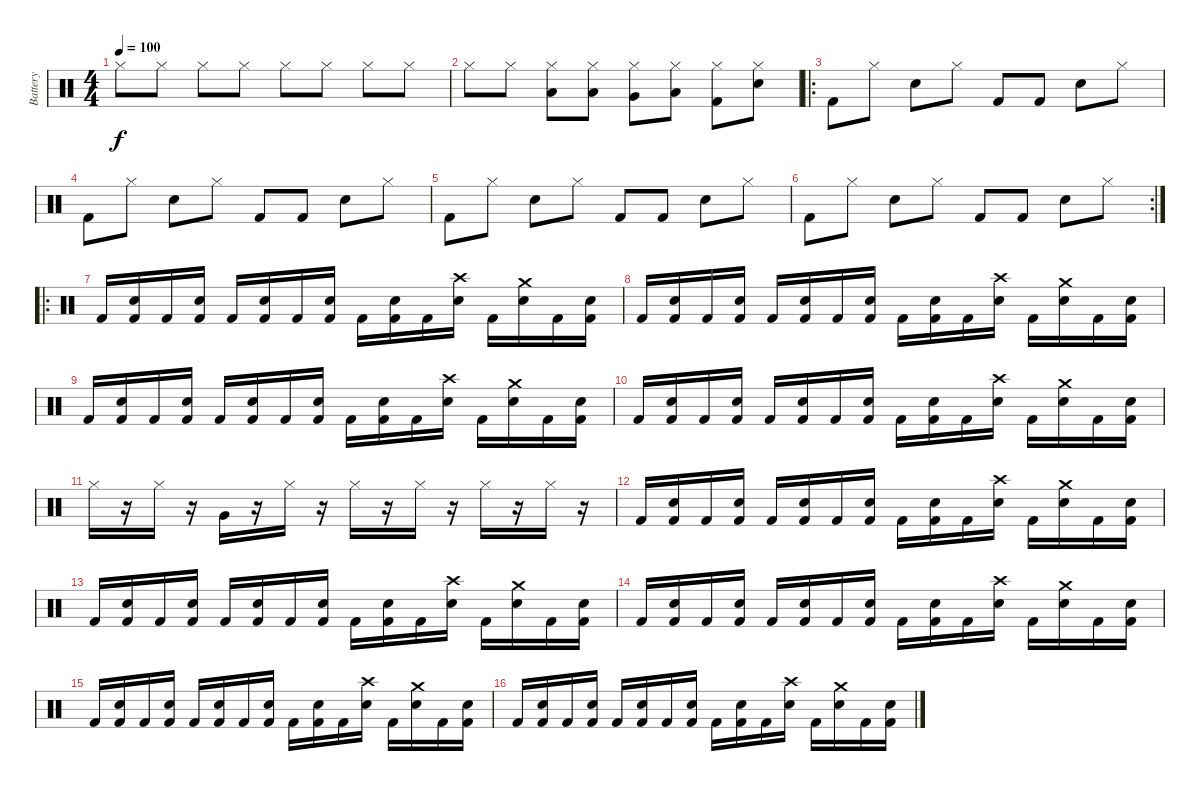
\track ("Battery" "Battery") {instrument percussion}
\staff {score}
\articulation defaults
\ts (4 4)
\tempo 100
\clef neutral
\ks c "Hi-Hat (closed)".8{dy f} "Hi-Hat (closed)".8 "Hi-Hat (closed)".8 "Hi-Hat (closed)".8 "Hi-Hat (closed)".8 "Hi-Hat (closed)".8 "Hi-Hat (closed)".8 "Hi-Hat (closed)".8
|
"Hi-Hat (closed)".8 "Hi-Hat (closed)".8 ("Hi-Hat (closed)" "Low Tom (hit)").8 ("Hi-Hat (closed)" "Low Tom (hit)").8 ("Hi-Hat (closed)" "Very Low Tom (hit)").8 ("Hi-Hat (closed)" "Low Floor Tom (hit)").8 ("Hi-Hat (closed)" "Kick (hit) 2").8 ("Hi-Hat (closed)" "Snare (hit) 2").8 |
\ro "Kick (hit) 2".8 "Hi-Hat (closed)".8 "Snare (hit) 2".8 "Hi-Hat (closed)".8 "Kick (hit) 2".8 "Kick (hit) 2".8 "Snare (hit) 2".8 "Hi-Hat (closed)".8
|
"Kick (hit) 2".8 "Hi-Hat (closed)".8 "Snare (hit) 2".8 "Hi-Hat (closed)".8 "Kick (hit) 2".8 "Kick (hit) 2".8 "Snare (hit) 2".8 "Hi-Hat (closed)".8 |
"Kick (hit) 2".8 "Hi-Hat (closed)".8 "Snare (hit) 2".8 "Hi-Hat (closed)".8 "Kick (hit) 2".8 "Kick (hit) 2".8 "Snare (hit) 2".8 "Hi-Hat (closed)".8 |
\rc 2 "Kick (hit) 2".8 "Hi-Hat (closed)".8 "Snare (hit) 2".8 "Hi-Hat (closed)".8 "Kick (hit) 2".8 "Kick (hit) 2".8 "Snare (hit) 2".8 "Hi-Hat (closed)".8
|
\ro "Kick (hit) 2".16
("Snare (hit) 2" "Kick (hit) 2").16 "Kick (hit) 2".16 ("Snare (hit) 2" "Kick (hit) 2").16 "Kick (hit) 2".16 ("Snare (hit) 2" "Kick (hit) 2").16 "Kick (hit) 2".16 ("Snare (hit) 2" "Kick (hit) 2").16 "Kick (hit) 2".16 ("Snare (hit) 2" "Kick (hit) 2").16 "Kick (hit) 2".16 ("Snare (hit) 2" "Crash high (hit)").16 "Kick (hit) 2".16 ("Snare (hit) 2" "Crash medium (hit)").16 "Kick (hit) 2".16 ("Snare (hit) 2" "Kick (hit) 2").16 |
"Kick (hit) 2".16 ("Snare (hit) 2" "Kick (hit) 2").16 "Kick (hit) 2".16 ("Snare (hit) 2" "Kick (hit) 2").16 "Kick (hit) 2".16 ("Snare (hit) 2" "Kick (hit) 2").16 "Kick (hit) 2".16 ("Snare (hit) 2" "Kick (hit) 2").16 "Kick (hit) 2".16 ("Snare (hit) 2" "Kick (hit) 2").16 "Kick (hit) 2".16 ("Snare (hit) 2" "Crash high (hit)").16 "Kick (hit) 2".16 ("Snare (hit) 2" "Crash medium (hit)").16 "Kick (hit) 2".16 ("Snare (hit) 2" "Kick (hit) 2").16 |
"Kick (hit) 2".16 ("Snare (hit) 2" "Kick (hit) 2").16 "Kick (hit) 2".16 ("Snare (hit) 2" "Kick (hit) 2").16 "Kick (hit) 2".16 ("Snare (hit) 2" "Kick (hit) 2").16 "Kick (hit) 2".16 ("Snare (hit) 2" "Kick (hit) 2").16 "Kick (hit) 2".16 ("Snare (hit) 2" "Kick (hit) 2").16 "Kick (hit) 2".16 ("Snare (hit) 2" "Crash high (hit)").16 "Kick (hit) 2".16 ("Snare (hit) 2" "Crash medium (hit)").16 "Kick (hit) 2".16 ("Snare (hit) 2" "Kick (hit) 2").16 |
"Kick (hit) 2".16 ("Snare (hit) 2" "Kick (hit) 2").16 "Kick (hit) 2".16 ("Snare (hit) 2" "Kick (hit) 2").16 "Kick (hit) 2".16 ("Snare (hit) 2" "Kick (hit) 2").16 "Kick (hit) 2".16 ("Snare (hit) 2" "Kick (hit) 2").16 "Kick (hit) 2".16 ("Snare (hit) 2" "Kick (hit) 2").16 "Kick (hit) 2".16 ("Snare (hit) 2" "Crash high (hit)").16 "Kick (hit) 2".16 ("Snare (hit) 2" "Crash medium (hit)").16 "Kick (hit) 2".16 ("Snare (hit) 2" "Kick (hit) 2").16 |
"Hi-Hat (closed)".16 r.16 "Hi-Hat (closed)".16 r.16 "Very Low Tom (hit)".16 r.16 "Hi-Hat (closed)".16 r.16 "Hi-Hat (closed)".16 r.16 "Hi-Hat (closed)".16 r.16 "Hi-Hat (closed)".16 r.16 "Hi-Hat (closed)".16 r.16 |
"Kick (hit) 2".16 ("Snare (hit) 2" "Kick (hit) 2").16 "Kick (hit) 2".16 ("Snare (hit) 2" "Kick (hit) 2").16 "Kick (hit) 2".16 ("Snare (hit) 2" "Kick (hit) 2").16 "Kick (hit) 2".16 ("Snare (hit) 2" "Kick (hit) 2").16 "Kick (hit) 2".16 ("Snare (hit) 2" "Kick (hit) 2").16 "Kick (hit) 2".16 ("Snare (hit) 2" "Crash high (hit)").16 "Kick (hit) 2".16 ("Snare (hit) 2" "Crash medium (hit)").16 "Kick (hit) 2".16 ("Snare (hit) 2" "Kick (hit) 2").16 |
"Kick (hit) 2".16 ("Snare (hit) 2" "Kick (hit) 2").16 "Kick (hit) 2".16 ("Snare (hit) 2" "Kick (hit) 2").16 "Kick (hit) 2".16 ("Snare (hit) 2" "Kick (hit) 2").16 "Kick (hit) 2".16 ("Snare (hit) 2" "Kick (hit) 2").16 "Kick (hit) 2".16 ("Snare (hit) 2" "Kick (hit) 2").16 "Kick (hit) 2".16 ("Snare (hit) 2" "Crash high (hit)").16 "Kick (hit) 2".16 ("Snare (hit) 2" "Crash medium (hit)").16 "Kick (hit) 2".16 ("Snare (hit) 2" "Kick (hit) 2").16 |
"Kick (hit) 2".16 ("Snare (hit) 2" "Kick (hit) 2").16 "Kick (hit) 2".16 ("Snare (hit) 2" "Kick (hit) 2").16 "Kick (hit) 2".16 ("Snare (hit) 2" "Kick (hit) 2").16 "Kick (hit) 2".16 ("Snare (hit) 2" "Kick (hit) 2").16 "Kick (hit) 2".16 ("Snare (hit) 2" "Kick (hit) 2").16 "Kick (hit) 2".16 ("Snare (hit) 2" "Crash high (hit)").16 "Kick (hit) 2".16 ("Snare (hit) 2" "Crash medium (hit)").16 "Kick (hit) 2".16 ("Snare (hit) 2" "Kick (hit) 2").16 |
"Kick (hit) 2".16 ("Snare (hit) 2" "Kick (hit) 2").16 "Kick (hit) 2".16 ("Snare (hit) 2" "Kick (hit) 2").16 "Kick (hit) 2".16 ("Snare (hit) 2" "Kick (hit) 2").16 "Kick (hit) 2".16 ("Snare (hit) 2" "Kick (hit) 2").16 "Kick (hit) 2".16 ("Snare (hit) 2" "Kick (hit) 2").16 "Kick (hit) 2".16 ("Snare (hit) 2" "Crash high (hit)").16 "Kick (hit) 2".16 ("Snare (hit) 2" "Crash medium (hit)").16 "Kick (hit) 2".16 ("Snare (hit) 2" "Kick (hit) 2").16 |
"Kick (hit) 2".16 ("Snare (hit) 2" "Kick (hit) 2").16 "Kick (hit) 2".16 ("Snare (hit) 2" "Kick (hit) 2").16 "Kick (hit) 2".16 ("Snare (hit) 2" "Kick (hit) 2").16 "Kick (hit) 2".16 ("Snare (hit) 2" "Kick (hit) 2").16 "Kick (hit) 2".16 ("Snare (hit) 2" "Kick (hit) 2").16 "Kick (hit) 2".16 ("Snare (hit) 2" "Crash high (hit)").16 "Kick (hit) 2".16 ("Snare (hit) 2" "Crash medium (hit)").16 "Kick (hit) 2".16 ("Snare (hit) 2" "Kick (hit) 2").16
